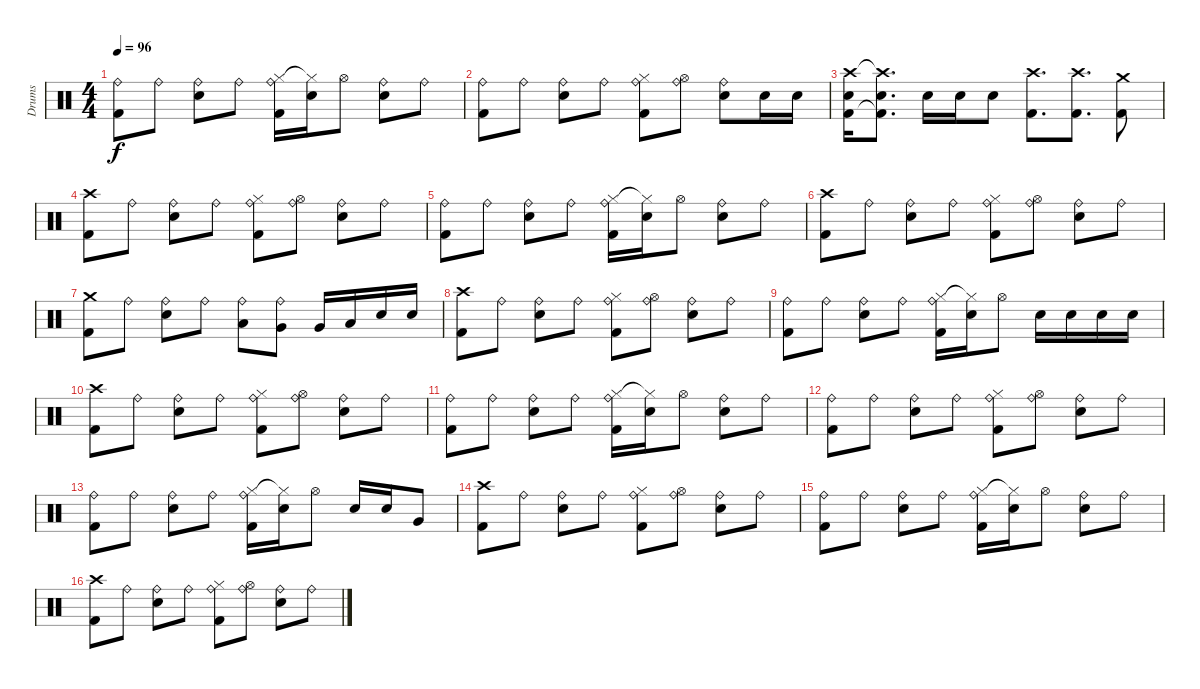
\track ("Drums" "Drums") {instrument percussion}
\staff {score}
\articulation defaults
\ts (4 4)
\tempo 96
\clef neutral
\ks c
("Ride (bell)" "Kick (hit) 2").8{dy f} "Ride (bell)".8 ("Ride (bell)" "Electric Snare (hit)").8 "Ride (bell)".8 ("Ride (bell)" "Hi-Hat (closed)" "Kick (hit) 2").16 ("Hi-Hat (closed)"{t} "Electric Snare (hit)").16 "Hi-Hat (open)".8 ("Ride (bell)" "Electric Snare (hit)").8 "Ride (bell)".8 |
("Ride (bell)" "Kick (hit) 2").8 "Ride (bell)".8 ("Ride (bell)" "Electric Snare (hit)").8 "Ride (bell)".8 ("Ride (bell)" "Hi-Hat (closed)" "Kick (hit) 2").8 ("Ride (bell)" "Hi-Hat (open)").8 ("Ride (bell)" "Electric Snare (hit)").8 "Electric Snare (hit)".16 "Electric Snare (hit)".16 |
("Crash high (hit)" "Electric Snare (hit)" "Kick (hit) 2").16 ("Crash high (hit)"{t} "Electric Snare (hit)" "Kick (hit) 2"{t}).8{d} "Electric Snare (hit)".16 "Electric Snare (hit)".16 "Electric Snare (hit)".8 ("Crash high (hit)" "Kick (hit) 2").8{d} ("Crash high (hit)" "Kick (hit) 2").8{d} ("Crash medium (hit)" "Kick (hit) 2").8 |
("Crash high (hit)" "Kick (hit) 2").8 "Ride (bell)".8 ("Ride (bell)" "Electric Snare (hit)").8 "Ride (bell)".8 ("Ride (bell)" "Hi-Hat (closed)" "Kick (hit) 2").8 ("Ride (bell)" "Hi-Hat (open)").8 ("Ride (bell)" "Electric Snare (hit)").8 "Ride (bell)".8 |
("Ride (bell)" "Kick (hit) 2").8 "Ride (bell)".8 ("Ride (bell)" "Electric Snare (hit)").8 "Ride (bell)".8 ("Ride (bell)" "Hi-Hat (closed)" "Kick (hit) 2").16 ("Hi-Hat (closed)"{t} "Electric Snare (hit)").16 "Hi-Hat (open)".8 ("Ride (bell)" "Electric Snare (hit)").8 "Ride (bell)".8 |
("Crash high (hit)" "Kick (hit) 2").8 "Ride (bell)".8 ("Ride (bell)" "Electric Snare (hit)").8 "Ride (bell)".8 ("Ride (bell)" "Hi-Hat (closed)" "Kick (hit) 2").8 ("Ride (bell)" "Hi-Hat (open)").8 ("Ride (bell)" "Electric Snare (hit)").8 "Ride (bell)".8 |
("Crash medium (hit)" "Kick (hit) 2").8 "Ride (bell)".8 ("Ride (bell)" "Electric Snare (hit)").8 "Ride (bell)".8 ("Ride (bell)" "Low Tom (hit)").8 ("Ride (bell)" "Very Low Tom (hit)").8 "Very Low Tom (hit)".16 "Low Tom (hit)".16 "Electric Snare (hit)".16 "Electric Snare (hit)".16 |
("Crash high (hit)" "Kick (hit) 2").8 "Ride (bell)".8 ("Ride (bell)" "Electric Snare (hit)").8 "Ride (bell)".8 ("Ride (bell)" "Hi-Hat (closed)" "Kick (hit) 2").8 ("Ride (bell)" "Hi-Hat (open)").8 ("Ride (bell)" "Electric Snare (hit)").8 "Ride (bell)".8 |
("Ride (bell)" "Kick (hit) 2").8 "Ride (bell)".8 ("Ride (bell)" "Electric Snare (hit)").8 "Ride (bell)".8 ("Ride (bell)" "Hi-Hat (closed)" "Kick (hit) 2").16 ("Hi-Hat (closed)"{t} "Electric Snare (hit)").16 "Hi-Hat (open)".8 "Electric Snare (hit)".16 "Electric Snare (hit)".16 "Electric Snare (hit)".16 "Electric Snare (hit)".16 |
("Crash high (hit)" "Kick (hit) 2").8 "Ride (bell)".8 ("Ride (bell)" "Electric Snare (hit)").8 "Ride (bell)".8 ("Ride (bell)" "Hi-Hat (closed)" "Kick (hit) 2").8 ("Ride (bell)" "Hi-Hat (open)").8 ("Ride (bell)" "Electric Snare (hit)").8 "Ride (bell)".8 |
("Ride (bell)" "Kick (hit) 2").8 "Ride (bell)".8 ("Ride (bell)" "Electric Snare (hit)").8 "Ride (bell)".8 ("Ride (bell)" "Hi-Hat (closed)" "Kick (hit) 2").16 ("Hi-Hat (closed)"{t} "Electric Snare (hit)").16 "Hi-Hat (open)".8 ("Ride (bell)" "Electric Snare (hit)").8 "Ride (bell)".8 |
("Ride (bell)" "Kick (hit) 2").8 "Ride (bell)".8 ("Ride (bell)" "Electric Snare (hit)").8 "Ride (bell)".8 ("Ride (bell)" "Hi-Hat (closed)" "Kick (hit) 2").8 ("Ride (bell)" "Hi-Hat (open)").8 ("Ride (bell)" "Electric Snare (hit)").8 "Ride (bell)".8 |
("Ride (bell)" "Kick (hit) 2").8 "Ride (bell)".8 ("Ride (bell)" "Electric Snare (hit)").8 "Ride (bell)".8 ("Ride (bell)" "Hi-Hat (closed)" "Kick (hit) 2").16 ("Hi-Hat (closed)"{t} "Electric Snare (hit)").16 "Hi-Hat (open)".8 "Electric Snare (hit)".16 "Electric Snare (hit)".16 "Very Low Tom (hit)".8 |
("Crash high (hit)" "Kick (hit) 2").8 "Ride (bell)".8 ("Ride (bell)" "Electric Snare (hit)").8 "Ride (bell)".8 ("Ride (bell)" "Hi-Hat (closed)" "Kick (hit) 2").8 ("Ride (bell)" "Hi-Hat (open)").8 ("Ride (bell)" "Electric Snare (hit)").8 "Ride (bell)".8 |
("Ride (bell)" "Kick (hit) 2").8 "Ride (bell)".8 ("Ride (bell)" "Electric Snare (hit)").8 "Ride (bell)".8 ("Ride (bell)" "Hi-Hat (closed)" "Kick (hit) 2").16 ("Hi-Hat (closed)"{t} "Electric Snare (hit)").16 "Hi-Hat (open)".8 ("Ride (bell)" "Electric Snare (hit)").8 "Ride (bell)".8 |
("Crash high (hit)" "Kick (hit) 2").8 "Ride (bell)".8 ("Ride (bell)" "Electric Snare (hit)").8 "Ride (bell)".8 ("Ride (bell)" "Hi-Hat (closed)" "Kick (hit) 2").8 ("Ride (bell)" "Hi-Hat (open)").8 ("Ride (bell)" "Electric Snare (hit)").8 "Ride (bell)".8
